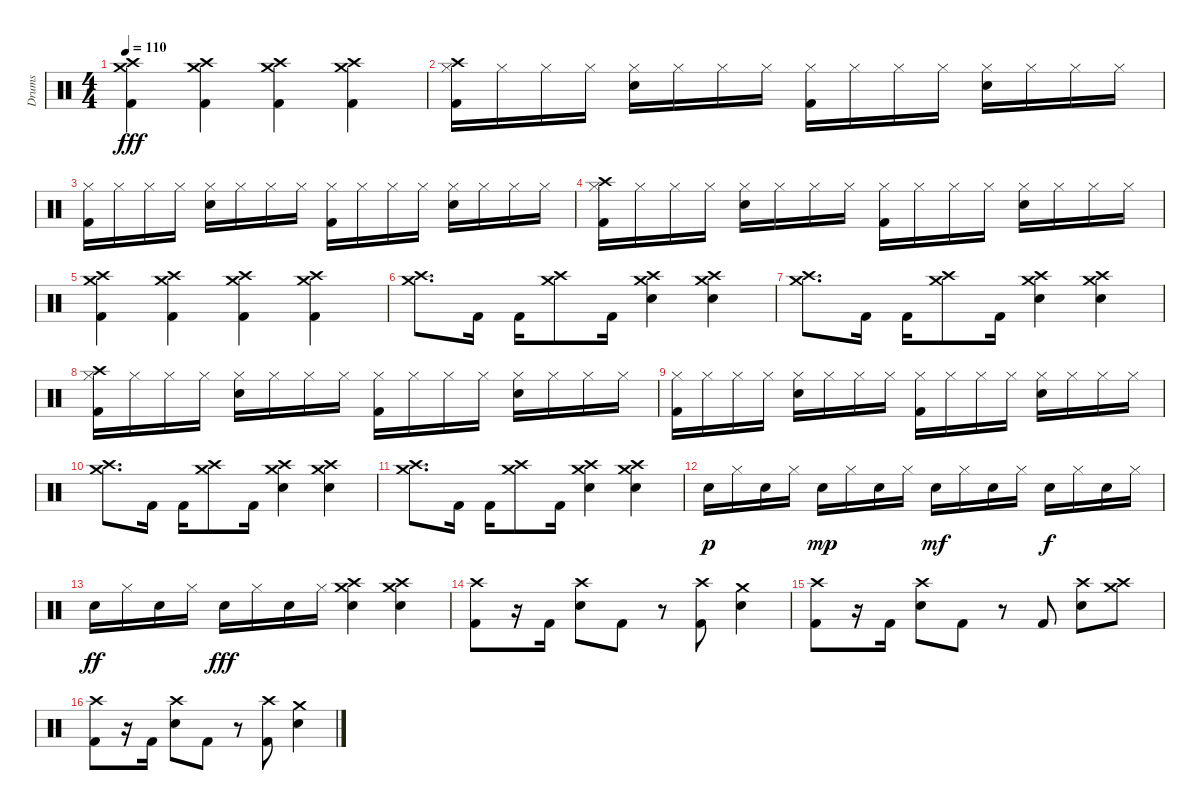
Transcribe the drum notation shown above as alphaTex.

\track ("Drums" "Drums") {instrument percussion}
\staff {score}
\articulation defaults
\ts (4 4)
\tempo 110
\clef neutral
\ks c
("Crash high (hit)" "Crash medium (hit)" "Kick (hit) 2").4{dy fff} ("Crash high (hit)" "Crash medium (hit)" "Kick (hit) 2").4 ("Crash high (hit)" "Crash medium (hit)" "Kick (hit) 2").4 ("Crash high (hit)" "Crash medium (hit)" "Kick (hit) 2").4 |
("Crash high (hit)" "Hi-Hat (closed)" "Kick (hit) 2").16 "Hi-Hat (closed)".16 "Hi-Hat (closed)".16 "Hi-Hat (closed)".16 ("Hi-Hat (closed)" "Electric Snare (hit)").16 "Hi-Hat (closed)".16 "Hi-Hat (closed)".16 "Hi-Hat (closed)".16 ("Hi-Hat (closed)" "Kick (hit) 2").16 "Hi-Hat (closed)".16 "Hi-Hat (closed)".16 "Hi-Hat (closed)".16 ("Hi-Hat (closed)" "Electric Snare (hit)").16 "Hi-Hat (closed)".16 "Hi-Hat (closed)".16 "Hi-Hat (closed)".16 |
("Hi-Hat (closed)" "Kick (hit) 2").16 "Hi-Hat (closed)".16 "Hi-Hat (closed)".16 "Hi-Hat (closed)".16 ("Hi-Hat (closed)" "Electric Snare (hit)").16 "Hi-Hat (closed)".16 "Hi-Hat (closed)".16 "Hi-Hat (closed)".16 ("Hi-Hat (closed)" "Kick (hit) 2").16 "Hi-Hat (closed)".16 "Hi-Hat (closed)".16 "Hi-Hat (closed)".16 ("Hi-Hat (closed)" "Electric Snare (hit)").16 "Hi-Hat (closed)".16 "Hi-Hat (closed)".16 "Hi-Hat (closed)".16 |
("Crash high (hit)" "Hi-Hat (closed)" "Kick (hit) 2").16 "Hi-Hat (closed)".16 "Hi-Hat (closed)".16 "Hi-Hat (closed)".16 ("Hi-Hat (closed)" "Electric Snare (hit)").16 "Hi-Hat (closed)".16 "Hi-Hat (closed)".16 "Hi-Hat (closed)".16 ("Hi-Hat (closed)" "Kick (hit) 2").16 "Hi-Hat (closed)".16 "Hi-Hat (closed)".16 "Hi-Hat (closed)".16 ("Hi-Hat (closed)" "Electric Snare (hit)").16 "Hi-Hat (closed)".16 "Hi-Hat (closed)".16 "Hi-Hat (closed)".16 |
("Crash high (hit)" "Crash medium (hit)" "Kick (hit) 2").4 ("Crash high (hit)" "Crash medium (hit)" "Kick (hit) 2").4 ("Crash high (hit)" "Crash medium (hit)" "Kick (hit) 2").4 ("Crash high (hit)" "Crash medium (hit)" "Kick (hit) 2").4 |
("Crash high (hit)" "Crash medium (hit)").8{d} "Kick (hit) 2".16 "Kick (hit) 2".16 ("Crash high (hit)" "Crash medium (hit)").8 "Kick (hit) 2".16 ("Crash high (hit)" "Crash medium (hit)" "Electric Snare (hit)").4 ("Crash high (hit)" "Crash medium (hit)" "Electric Snare (hit)").4 |
("Crash high (hit)" "Crash medium (hit)").8{d} "Kick (hit) 2".16 "Kick (hit) 2".16 ("Crash high (hit)" "Crash medium (hit)").8 "Kick (hit) 2".16 ("Crash high (hit)" "Crash medium (hit)" "Electric Snare (hit)").4 ("Crash high (hit)" "Crash medium (hit)" "Electric Snare (hit)").4 |
("Crash high (hit)" "Hi-Hat (closed)" "Kick (hit) 2").16 "Hi-Hat (closed)".16 "Hi-Hat (closed)".16 "Hi-Hat (closed)".16 ("Hi-Hat (closed)" "Electric Snare (hit)").16 "Hi-Hat (closed)".16 "Hi-Hat (closed)".16 "Hi-Hat (closed)".16 ("Hi-Hat (closed)" "Kick (hit) 2").16 "Hi-Hat (closed)".16 "Hi-Hat (closed)".16 "Hi-Hat (closed)".16 ("Hi-Hat (closed)" "Electric Snare (hit)").16 "Hi-Hat (closed)".16 "Hi-Hat (closed)".16 "Hi-Hat (closed)".16 |
("Hi-Hat (closed)" "Kick (hit) 2").16 "Hi-Hat (closed)".16 "Hi-Hat (closed)".16 "Hi-Hat (closed)".16 ("Hi-Hat (closed)" "Electric Snare (hit)").16 "Hi-Hat (closed)".16 "Hi-Hat (closed)".16 "Hi-Hat (closed)".16 ("Hi-Hat (closed)" "Kick (hit) 2").16 "Hi-Hat (closed)".16 "Hi-Hat (closed)".16 "Hi-Hat (closed)".16 ("Hi-Hat (closed)" "Electric Snare (hit)").16 "Hi-Hat (closed)".16 "Hi-Hat (closed)".16 "Hi-Hat (closed)".16 |
("Crash high (hit)" "Crash medium (hit)").8{d} "Kick (hit) 2".16 "Kick (hit) 2".16 ("Crash high (hit)" "Crash medium (hit)").8 "Kick (hit) 2".16 ("Crash high (hit)" "Crash medium (hit)" "Electric Snare (hit)").4 ("Crash high (hit)" "Crash medium (hit)" "Electric Snare (hit)").4 |
("Crash high (hit)" "Crash medium (hit)").8{d} "Kick (hit) 2".16 "Kick (hit) 2".16 ("Crash high (hit)" "Crash medium (hit)").8 "Kick (hit) 2".16 ("Crash high (hit)" "Crash medium (hit)" "Electric Snare (hit)").4 ("Crash high (hit)" "Crash medium (hit)" "Electric Snare (hit)").4 |
"Electric Snare (hit)".16{dy p} "Hi-Hat (closed)".16 "Electric Snare (hit)".16 "Hi-Hat (closed)".16 "Electric Snare (hit)".16{dy mp} "Hi-Hat (closed)".16 "Electric Snare (hit)".16 "Hi-Hat (closed)".16 "Electric Snare (hit)".16{dy mf} "Hi-Hat (closed)".16 "Electric Snare (hit)".16 "Hi-Hat (closed)".16 "Electric Snare (hit)".16{dy f} "Hi-Hat (closed)".16 "Electric Snare (hit)".16 "Hi-Hat (closed)".16 |
"Electric Snare (hit)".16{dy ff} "Hi-Hat (closed)".16 "Electric Snare (hit)".16 "Hi-Hat (closed)".16 "Electric Snare (hit)".16{dy fff} "Hi-Hat (closed)".16 "Electric Snare (hit)".16 "Hi-Hat (closed)".16 ("Crash high (hit)" "Crash medium (hit)" "Electric Snare (hit)").4 ("Crash high (hit)" "Crash medium (hit)" "Electric Snare (hit)").4 |
("Crash high (hit)" "Kick (hit) 2").8 r.16 "Kick (hit) 2".16 ("Crash high (hit)" "Electric Snare (hit)").8 "Kick (hit) 2".8 r.8 ("Crash high (hit)" "Kick (hit) 2").8 ("Crash medium (hit)" "Electric Snare (hit)").4 |
("Crash high (hit)" "Kick (hit) 2").8 r.16 "Kick (hit) 2".16 ("Crash high (hit)" "Electric Snare (hit)").8 "Kick (hit) 2".8 r.8 "Kick (hit) 2".8 ("Crash high (hit)" "Electric Snare (hit)").8 ("Crash high (hit)" "Crash medium (hit)").8 |
("Crash high (hit)" "Kick (hit) 2").8 r.16 "Kick (hit) 2".16 ("Crash high (hit)" "Electric Snare (hit)").8 "Kick (hit) 2".8 r.8 ("Crash high (hit)" "Kick (hit) 2").8 ("Crash medium (hit)" "Electric Snare (hit)").4
